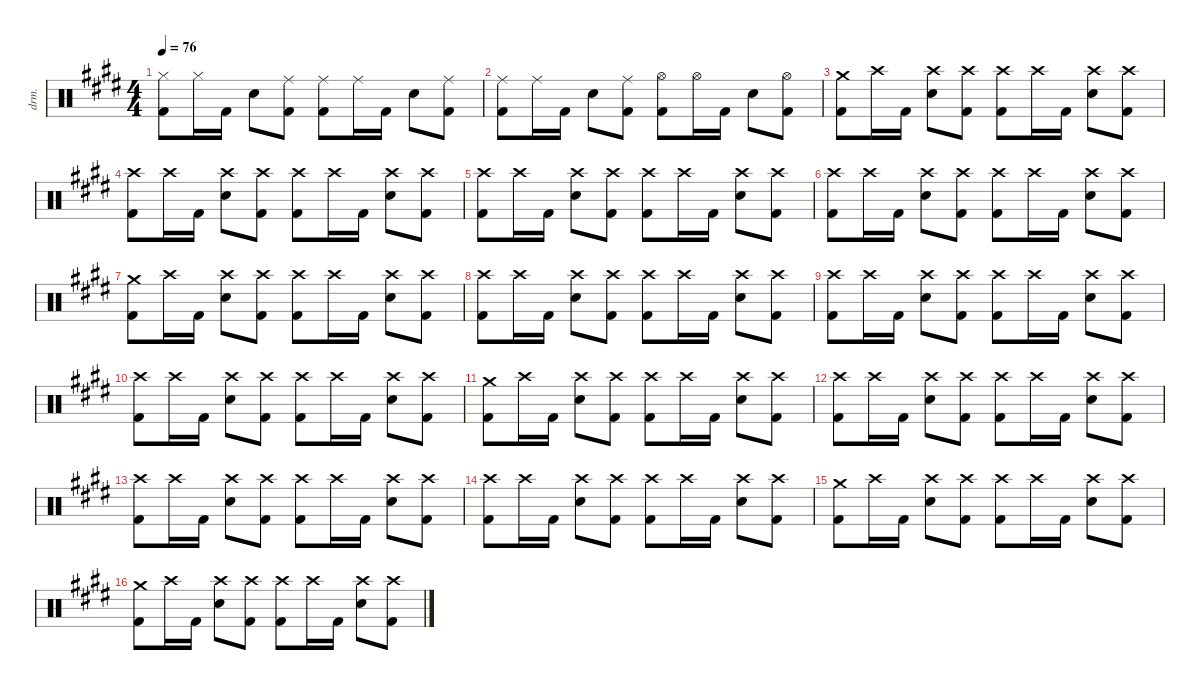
\defaultSystemsLayout 4
\hideDynamics
\bracketExtendMode nobrackets
\otherSystemsTrackNameOrientation horizontal
\track ("Drums" "drm.") {instrument percussion}
\staff {score}
\articulation defaults
\ts (4 4)
\tempo 76
\clef neutral
\ks e
("Hi-Hat (closed)"{acc forcenatural} "Kick (hit) 2"{acc forcenatural}).8{dy f beam Down} "Hi-Hat (closed)"{acc forcenatural}.16{beam Down} "Kick (hit) 2"{acc forcenatural}.16{beam Down} "Snare (hit) 2"{acc forcenatural}.8{beam Down} ("Ride (middle)"{acc forcenatural} "Kick (hit) 2"{acc forcenatural}).8{beam Down} ("Ride (middle)"{acc forcenatural} "Kick (hit) 2"{acc forcenatural}).8{beam Down} "Ride (middle)"{acc forcenatural}.16{beam Down} "Kick (hit) 2"{acc forcenatural}.16{beam Down} "Snare (hit) 2"{acc forcenatural}.8{beam Down} ("Ride (middle)"{acc forcenatural} "Kick (hit) 2"{acc forcenatural}).8{beam Down} |
("Ride (middle)"{acc forcenatural} "Kick (hit) 2"{acc forcenatural}).8{beam Down} "Ride (middle)"{acc forcenatural}.16{beam Down} "Kick (hit) 2"{acc forcenatural}.16{beam Down} "Snare (hit) 2"{acc forcenatural}.8{beam Down} ("Ride (middle)"{acc forcenatural} "Kick (hit) 2"{acc forcenatural}).8{beam Down} ("Hi-Hat (open)"{acc forcenatural} "Kick (hit) 2"{acc forcenatural}).8{beam Down} "Hi-Hat (open)"{acc forcenatural}.16{beam Down} "Kick (hit) 2"{acc forcenatural}.16{beam Down} "Snare (hit) 2"{acc forcenatural}.8{beam Down} ("Hi-Hat (open)"{acc forcenatural} "Kick (hit) 2"{acc forcenatural}).8{beam Down} |
("Crash medium (hit)"{acc forcenatural} "Kick (hit) 2"{acc forcenatural}).8{beam Down} "Crash high (hit)"{acc forcenatural}.16{beam Down} "Kick (hit) 2"{acc forcenatural}.16{beam Down} ("Crash high (hit)"{acc forcenatural} "Snare (hit) 2"{acc forcenatural}).8{beam Down} ("Crash high (hit)"{acc forcenatural} "Kick (hit) 2"{acc forcenatural}).8{beam Down} ("Crash high (hit)"{acc forcenatural} "Kick (hit) 2"{acc forcenatural}).8{beam Down} "Crash high (hit)"{acc forcenatural}.16{beam Down} "Kick (hit) 2"{acc forcenatural}.16{beam Down} ("Crash high (hit)"{acc forcenatural} "Snare (hit) 2"{acc forcenatural}).8{beam Down} ("Crash high (hit)"{acc forcenatural} "Kick (hit) 2"{acc forcenatural}).8{beam Down} |
("Crash high (hit)"{acc forcenatural} "Kick (hit) 2"{acc forcenatural}).8{beam Down} "Crash high (hit)"{acc forcenatural}.16{beam Down} "Kick (hit) 2"{acc forcenatural}.16{beam Down} ("Crash high (hit)"{acc forcenatural} "Snare (hit) 2"{acc forcenatural}).8{beam Down} ("Crash high (hit)"{acc forcenatural} "Kick (hit) 2"{acc forcenatural}).8{beam Down} ("Crash high (hit)"{acc forcenatural} "Kick (hit) 2"{acc forcenatural}).8{beam Down} "Crash high (hit)"{acc forcenatural}.16{beam Down} "Kick (hit) 2"{acc forcenatural}.16{beam Down} ("Crash high (hit)"{acc forcenatural} "Snare (hit) 2"{acc forcenatural}).8{beam Down} ("Crash high (hit)"{acc forcenatural} "Kick (hit) 2"{acc forcenatural}).8{beam Down} |
("Crash high (hit)"{acc forcenatural} "Kick (hit) 2"{acc forcenatural}).8{beam Down} "Crash high (hit)"{acc forcenatural}.16{beam Down} "Kick (hit) 2"{acc forcenatural}.16{beam Down} ("Crash high (hit)"{acc forcenatural} "Snare (hit) 2"{acc forcenatural}).8{beam Down} ("Crash high (hit)"{acc forcenatural} "Kick (hit) 2"{acc forcenatural}).8{beam Down} ("Crash high (hit)"{acc forcenatural} "Kick (hit) 2"{acc forcenatural}).8{beam Down} "Crash high (hit)"{acc forcenatural}.16{beam Down} "Kick (hit) 2"{acc forcenatural}.16{beam Down} ("Crash high (hit)"{acc forcenatural} "Snare (hit) 2"{acc forcenatural}).8{beam Down} ("Crash high (hit)"{acc forcenatural} "Kick (hit) 2"{acc forcenatural}).8{beam Down} |
("Crash high (hit)"{acc forcenatural} "Kick (hit) 2"{acc forcenatural}).8{beam Down} "Crash high (hit)"{acc forcenatural}.16{beam Down} "Kick (hit) 2"{acc forcenatural}.16{beam Down} ("Crash high (hit)"{acc forcenatural} "Snare (hit) 2"{acc forcenatural}).8{beam Down} ("Crash high (hit)"{acc forcenatural} "Kick (hit) 2"{acc forcenatural}).8{beam Down} ("Crash high (hit)"{acc forcenatural} "Kick (hit) 2"{acc forcenatural}).8{beam Down} "Crash high (hit)"{acc forcenatural}.16{beam Down} "Kick (hit) 2"{acc forcenatural}.16{beam Down} ("Crash high (hit)"{acc forcenatural} "Snare (hit) 2"{acc forcenatural}).8{beam Down} ("Crash high (hit)"{acc forcenatural} "Kick (hit) 2"{acc forcenatural}).8{beam Down} |
("Crash medium (hit)"{acc forcenatural} "Kick (hit) 2"{acc forcenatural}).8{beam Down} "Crash high (hit)"{acc forcenatural}.16{beam Down} "Kick (hit) 2"{acc forcenatural}.16{beam Down} ("Crash high (hit)"{acc forcenatural} "Snare (hit) 2"{acc forcenatural}).8{dy mf beam Down} ("Crash high (hit)"{acc forcenatural} "Kick (hit) 2"{acc forcenatural}).8{dy f beam Down} ("Crash high (hit)"{acc forcenatural} "Kick (hit) 2"{acc forcenatural}).8{beam Down} "Crash high (hit)"{acc forcenatural}.16{beam Down} "Kick (hit) 2"{acc forcenatural}.16{beam Down} ("Crash high (hit)"{acc forcenatural} "Snare (hit) 2"{acc forcenatural}).8{dy mf beam Down} ("Crash high (hit)"{acc forcenatural} "Kick (hit) 2"{acc forcenatural}).8{dy f beam Down} |
("Crash high (hit)"{acc forcenatural} "Kick (hit) 2"{acc forcenatural}).8{beam Down} "Crash high (hit)"{acc forcenatural}.16{beam Down} "Kick (hit) 2"{acc forcenatural}.16{beam Down} ("Crash high (hit)"{acc forcenatural} "Snare (hit) 2"{acc forcenatural}).8{dy mf beam Down} ("Crash high (hit)"{acc forcenatural} "Kick (hit) 2"{acc forcenatural}).8{dy f beam Down} ("Crash high (hit)"{acc forcenatural} "Kick (hit) 2"{acc forcenatural}).8{beam Down} "Crash high (hit)"{acc forcenatural}.16{beam Down} "Kick (hit) 2"{acc forcenatural}.16{beam Down} ("Crash high (hit)"{acc forcenatural} "Snare (hit) 2"{acc forcenatural}).8{dy mf beam Down} ("Crash high (hit)"{acc forcenatural} "Kick (hit) 2"{acc forcenatural}).8{dy f beam Down} |
("Crash high (hit)"{acc forcenatural} "Kick (hit) 2"{acc forcenatural}).8{beam Down} "Crash high (hit)"{acc forcenatural}.16{beam Down} "Kick (hit) 2"{acc forcenatural}.16{beam Down} ("Crash high (hit)"{acc forcenatural} "Snare (hit) 2"{acc forcenatural}).8{dy mf beam Down} ("Crash high (hit)"{acc forcenatural} "Kick (hit) 2"{acc forcenatural}).8{dy f beam Down} ("Crash high (hit)"{acc forcenatural} "Kick (hit) 2"{acc forcenatural}).8{beam Down} "Crash high (hit)"{acc forcenatural}.16{beam Down} "Kick (hit) 2"{acc forcenatural}.16{beam Down} ("Crash high (hit)"{acc forcenatural} "Snare (hit) 2"{acc forcenatural}).8{dy mf beam Down} ("Crash high (hit)"{acc forcenatural} "Kick (hit) 2"{acc forcenatural}).8{dy f beam Down} |
("Crash high (hit)"{acc forcenatural} "Kick (hit) 2"{acc forcenatural}).8{beam Down} "Crash high (hit)"{acc forcenatural}.16{beam Down} "Kick (hit) 2"{acc forcenatural}.16{beam Down} ("Crash high (hit)"{acc forcenatural} "Snare (hit) 2"{acc forcenatural}).8{dy mf beam Down} ("Crash high (hit)"{acc forcenatural} "Kick (hit) 2"{acc forcenatural}).8{dy f beam Down} ("Crash high (hit)"{acc forcenatural} "Kick (hit) 2"{acc forcenatural}).8{beam Down} "Crash high (hit)"{acc forcenatural}.16{beam Down} "Kick (hit) 2"{acc forcenatural}.16{beam Down} ("Crash high (hit)"{acc forcenatural} "Snare (hit) 2"{acc forcenatural}).8{dy mf beam Down} ("Crash high (hit)"{acc forcenatural} "Kick (hit) 2"{acc forcenatural}).8{dy f beam Down} |
("Crash medium (hit)"{acc forcenatural} "Kick (hit) 2"{acc forcenatural}).8{beam Down} "Crash high (hit)"{acc forcenatural}.16{beam Down} "Kick (hit) 2"{acc forcenatural}.16{beam Down} ("Crash high (hit)"{acc forcenatural} "Snare (hit) 2"{acc forcenatural}).8{dy mf beam Down} ("Crash high (hit)"{acc forcenatural} "Kick (hit) 2"{acc forcenatural}).8{dy f beam Down} ("Crash high (hit)"{acc forcenatural} "Kick (hit) 2"{acc forcenatural}).8{beam Down} "Crash high (hit)"{acc forcenatural}.16{beam Down} "Kick (hit) 2"{acc forcenatural}.16{beam Down} ("Crash high (hit)"{acc forcenatural} "Snare (hit) 2"{acc forcenatural}).8{dy mf beam Down} ("Crash high (hit)"{acc forcenatural} "Kick (hit) 2"{acc forcenatural}).8{dy f beam Down} |
("Crash high (hit)"{acc forcenatural} "Kick (hit) 2"{acc forcenatural}).8{beam Down} "Crash high (hit)"{acc forcenatural}.16{beam Down} "Kick (hit) 2"{acc forcenatural}.16{beam Down} ("Crash high (hit)"{acc forcenatural} "Snare (hit) 2"{acc forcenatural}).8{dy mf beam Down} ("Crash high (hit)"{acc forcenatural} "Kick (hit) 2"{acc forcenatural}).8{dy f beam Down} ("Crash high (hit)"{acc forcenatural} "Kick (hit) 2"{acc forcenatural}).8{beam Down} "Crash high (hit)"{acc forcenatural}.16{beam Down} "Kick (hit) 2"{acc forcenatural}.16{beam Down} ("Crash high (hit)"{acc forcenatural} "Snare (hit) 2"{acc forcenatural}).8{dy mf beam Down} ("Crash high (hit)"{acc forcenatural} "Kick (hit) 2"{acc forcenatural}).8{dy f beam Down} |
("Crash high (hit)"{acc forcenatural} "Kick (hit) 2"{acc forcenatural}).8{beam Down} "Crash high (hit)"{acc forcenatural}.16{beam Down} "Kick (hit) 2"{acc forcenatural}.16{beam Down} ("Crash high (hit)"{acc forcenatural} "Snare (hit) 2"{acc forcenatural}).8{dy mf beam Down} ("Crash high (hit)"{acc forcenatural} "Kick (hit) 2"{acc forcenatural}).8{dy f beam Down} ("Crash high (hit)"{acc forcenatural} "Kick (hit) 2"{acc forcenatural}).8{beam Down} "Crash high (hit)"{acc forcenatural}.16{beam Down} "Kick (hit) 2"{acc forcenatural}.16{beam Down} ("Crash high (hit)"{acc forcenatural} "Snare (hit) 2"{acc forcenatural}).8{dy mf beam Down} ("Crash high (hit)"{acc forcenatural} "Kick (hit) 2"{acc forcenatural}).8{dy f beam Down} |
("Crash high (hit)"{acc forcenatural} "Kick (hit) 2"{acc forcenatural}).8{beam Down} "Crash high (hit)"{acc forcenatural}.16{beam Down} "Kick (hit) 2"{acc forcenatural}.16{beam Down} ("Crash high (hit)"{acc forcenatural} "Snare (hit) 2"{acc forcenatural}).8{dy mf beam Down} ("Crash high (hit)"{acc forcenatural} "Kick (hit) 2"{acc forcenatural}).8{dy f beam Down} ("Crash high (hit)"{acc forcenatural} "Kick (hit) 2"{acc forcenatural}).8{beam Down} "Crash high (hit)"{acc forcenatural}.16{beam Down} "Kick (hit) 2"{acc forcenatural}.16{beam Down} ("Crash high (hit)"{acc forcenatural} "Snare (hit) 2"{acc forcenatural}).8{dy mf beam Down} ("Crash high (hit)"{acc forcenatural} "Kick (hit) 2"{acc forcenatural}).8{dy f beam Down} |
("Crash medium (hit)"{acc forcenatural} "Kick (hit) 2"{acc forcenatural}).8{beam Down} "Crash high (hit)"{acc forcenatural}.16{beam Down} "Kick (hit) 2"{acc forcenatural}.16{beam Down} ("Crash high (hit)"{acc forcenatural} "Snare (hit) 2"{acc forcenatural}).8{dy mf beam Down} ("Crash high (hit)"{acc forcenatural} "Kick (hit) 2"{acc forcenatural}).8{dy f beam Down} ("Crash high (hit)"{acc forcenatural} "Kick (hit) 2"{acc forcenatural}).8{beam Down} "Crash high (hit)"{acc forcenatural}.16{beam Down} "Kick (hit) 2"{acc forcenatural}.16{beam Down} ("Crash high (hit)"{acc forcenatural} "Snare (hit) 2"{acc forcenatural}).8{dy mf beam Down} ("Crash high (hit)"{acc forcenatural} "Kick (hit) 2"{acc forcenatural}).8{dy f beam Down} |
("Crash medium (hit)"{acc forcenatural} "Kick (hit) 2"{acc forcenatural}).8{beam Down} "Crash high (hit)"{acc forcenatural}.16{beam Down} "Kick (hit) 2"{acc forcenatural}.16{beam Down} ("Crash high (hit)"{acc forcenatural} "Snare (hit) 2"{acc forcenatural}).8{dy mf beam Down} ("Crash high (hit)"{acc forcenatural} "Kick (hit) 2"{acc forcenatural}).8{dy f beam Down} ("Crash high (hit)"{acc forcenatural} "Kick (hit) 2"{acc forcenatural}).8{beam Down} "Crash high (hit)"{acc forcenatural}.16{beam Down} "Kick (hit) 2"{acc forcenatural}.16{beam Down} ("Crash high (hit)"{acc forcenatural} "Snare (hit) 2"{acc forcenatural}).8{dy mf beam Down} ("Crash high (hit)"{acc forcenatural} "Kick (hit) 2"{acc forcenatural}).8{dy f beam Down}
